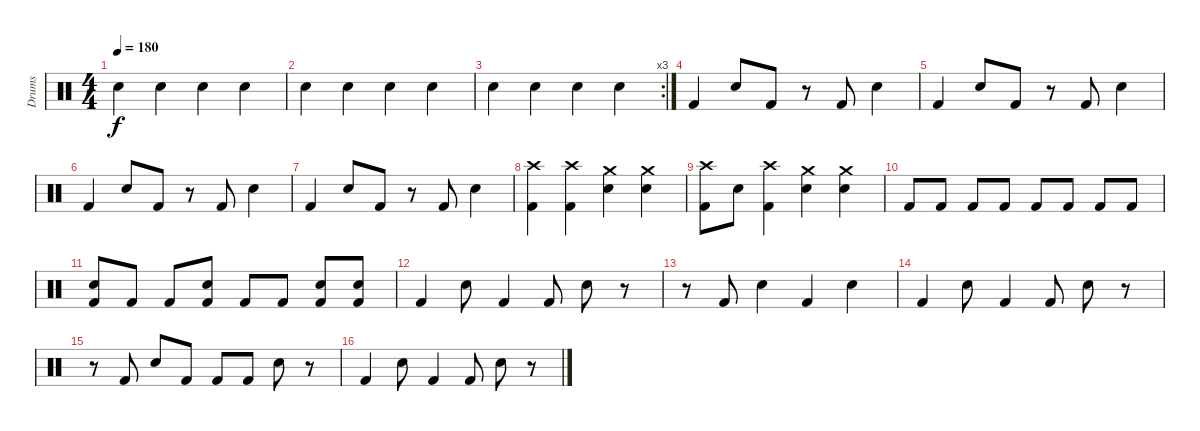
\track ("Drums" "Drums") {instrument percussion}
\staff {score}
\articulation defaults
\ts (4 4)
\tempo 180
\clef neutral
\ks c "Snare (hit) 2".4{dy f} "Snare (hit) 2".4 "Snare (hit) 2".4 "Snare (hit) 2".4
|
"Snare (hit) 2".4 "Snare (hit) 2".4 "Snare (hit) 2".4 "Snare (hit) 2".4 |
\rc 3 "Snare (hit) 2".4 "Snare (hit) 2".4 "Snare (hit) 2".4 "Snare (hit) 2".4
|
"Kick (hit) 2".4 "Snare (hit) 2".8 "Kick (hit) 2".8 r.8 "Kick (hit) 2".8 "Snare (hit) 2".4 |
"Kick (hit) 2".4 "Snare (hit) 2".8 "Kick (hit) 2".8 r.8 "Kick (hit) 2".8 "Snare (hit) 2".4 |
"Kick (hit) 2".4 "Snare (hit) 2".8 "Kick (hit) 2".8 r.8 "Kick (hit) 2".8 "Snare (hit) 2".4 |
"Kick (hit) 2".4 "Snare (hit) 2".8 "Kick (hit) 2".8 r.8 "Kick (hit) 2".8 "Snare (hit) 2".4 |
("Crash high (hit)" "Kick (hit) 2").4 ("Crash high (hit)" "Kick (hit) 2").4 ("Crash medium (hit)" "Snare (hit) 2").4 ("Crash medium (hit)" "Snare (hit) 2").4 |
("Crash high (hit)" "Kick (hit) 2").8 "Snare (hit) 2".8 ("Crash high (hit)" "Kick (hit) 2").4 ("Crash medium (hit)" "Snare (hit) 2").4 ("Crash medium (hit)" "Snare (hit) 2").4 |
"Kick (hit) 2".8 "Kick (hit) 2".8 "Kick (hit) 2".8 "Kick (hit) 2".8 "Kick (hit) 2".8 "Kick (hit) 2".8 "Kick (hit) 2".8 "Kick (hit) 2".8 |
("Snare (hit) 2" "Kick (hit) 2").8 "Kick (hit) 2".8 "Kick (hit) 2".8 ("Snare (hit) 2" "Kick (hit) 2").8 "Kick (hit) 2".8 "Kick (hit) 2".8 ("Snare (hit) 2" "Kick (hit) 2").8 ("Snare (hit) 2" "Kick (hit) 2").8 |
"Kick (hit) 2".4 "Snare (hit) 2".8 "Kick (hit) 2".4 "Kick (hit) 2".8 "Snare (hit) 2".8 r.8 |
r.8 "Kick (hit) 2".8 "Snare (hit) 2".4 "Kick (hit) 2".4 "Snare (hit) 2".4 |
"Kick (hit) 2".4 "Snare (hit) 2".8 "Kick (hit) 2".4 "Kick (hit) 2".8 "Snare (hit) 2".8 r.8 |
r.8 "Kick (hit) 2".8 "Snare (hit) 2".8 "Kick (hit) 2".8 "Kick (hit) 2".8 "Kick (hit) 2".8 "Snare (hit) 2".8 r.8 |
"Kick (hit) 2".4 "Snare (hit) 2".8 "Kick (hit) 2".4 "Kick (hit) 2".8 "Snare (hit) 2".8 r.8
